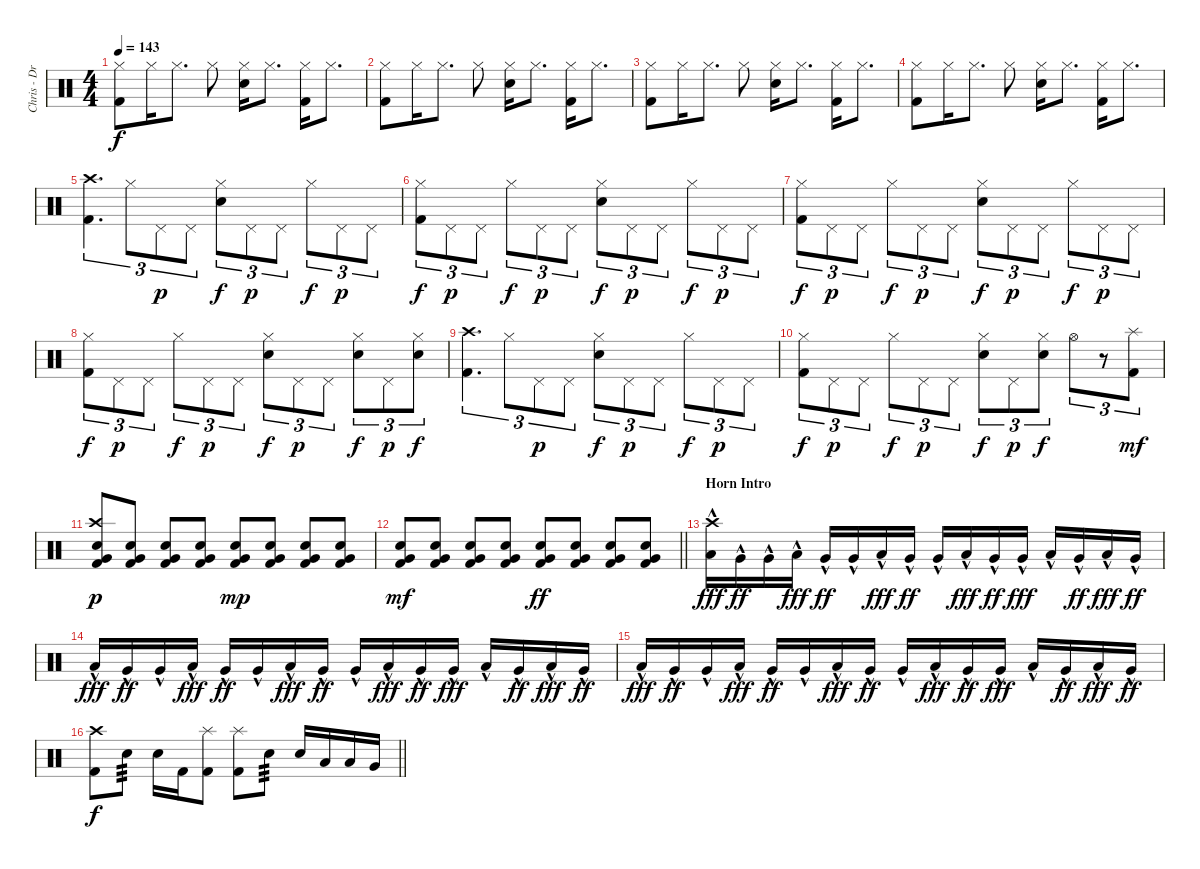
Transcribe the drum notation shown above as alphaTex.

\track ("Chris - Drums" "Chris - Dr") {instrument percussion}
\staff {score}
\articulation defaults
\ts (4 4)
\tempo 143
\clef neutral
\ks c
("Hi-Hat (closed)" "Kick (hit) 2").8{dy f} "Hi-Hat (closed)".16 "Hi-Hat (closed)".8{d} "Hi-Hat (closed)".8 ("Hi-Hat (closed)" "Electric Snare (hit)").16 "Hi-Hat (closed)".8{d} ("Hi-Hat (closed)" "Kick (hit) 2").16 "Hi-Hat (closed)".8{d} |
("Hi-Hat (closed)" "Kick (hit) 2").8 "Hi-Hat (closed)".16 "Hi-Hat (closed)".8{d} "Hi-Hat (closed)".8 ("Hi-Hat (closed)" "Electric Snare (hit)").16 "Hi-Hat (closed)".8{d} ("Hi-Hat (closed)" "Kick (hit) 2").16 "Hi-Hat (closed)".8{d} |
("Hi-Hat (closed)" "Kick (hit) 2").8 "Hi-Hat (closed)".16 "Hi-Hat (closed)".8{d} "Hi-Hat (closed)".8 ("Hi-Hat (closed)" "Electric Snare (hit)").16 "Hi-Hat (closed)".8{d} ("Hi-Hat (closed)" "Kick (hit) 2").16 "Hi-Hat (closed)".8{d} |
("Hi-Hat (closed)" "Kick (hit) 2").8 "Hi-Hat (closed)".16 "Hi-Hat (closed)".8{d} "Hi-Hat (closed)".8 ("Hi-Hat (closed)" "Electric Snare (hit)").16 "Hi-Hat (closed)".8{d} ("Hi-Hat (closed)" "Kick (hit) 2").16 "Hi-Hat (closed)".8{d} |
("Crash high (hit)" "Kick (hit) 2").4{d tu (3 2)} "Hi-Hat (closed)".8{tu (3 2)} "Pedal Hi-Hat (hit)".8{tu (3 2) dy p} "Pedal Hi-Hat (hit)".8{tu (3 2)} ("Hi-Hat (closed)" "Electric Snare (hit)").8{tu (3 2) dy f} "Pedal Hi-Hat (hit)".8{tu (3 2) dy p} "Pedal Hi-Hat (hit)".8{tu (3 2)} "Hi-Hat (closed)".8{tu (3 2) dy f} "Pedal Hi-Hat (hit)".8{tu (3 2) dy p} "Pedal Hi-Hat (hit)".8{tu (3 2)} |
("Hi-Hat (closed)" "Kick (hit) 2").8{tu (3 2) dy f} "Pedal Hi-Hat (hit)".8{tu (3 2) dy p} "Pedal Hi-Hat (hit)".8{tu (3 2)} "Hi-Hat (closed)".8{tu (3 2) dy f} "Pedal Hi-Hat (hit)".8{tu (3 2) dy p} "Pedal Hi-Hat (hit)".8{tu (3 2)} ("Hi-Hat (closed)" "Electric Snare (hit)").8{tu (3 2) dy f} "Pedal Hi-Hat (hit)".8{tu (3 2) dy p} "Pedal Hi-Hat (hit)".8{tu (3 2)} "Hi-Hat (closed)".8{tu (3 2) dy f} "Pedal Hi-Hat (hit)".8{tu (3 2) dy p} "Pedal Hi-Hat (hit)".8{tu (3 2)} |
("Hi-Hat (closed)" "Kick (hit) 2").8{tu (3 2) dy f} "Pedal Hi-Hat (hit)".8{tu (3 2) dy p} "Pedal Hi-Hat (hit)".8{tu (3 2)} "Hi-Hat (closed)".8{tu (3 2) dy f} "Pedal Hi-Hat (hit)".8{tu (3 2) dy p} "Pedal Hi-Hat (hit)".8{tu (3 2)} ("Hi-Hat (closed)" "Electric Snare (hit)").8{tu (3 2) dy f} "Pedal Hi-Hat (hit)".8{tu (3 2) dy p} "Pedal Hi-Hat (hit)".8{tu (3 2)} "Hi-Hat (closed)".8{tu (3 2) dy f} "Pedal Hi-Hat (hit)".8{tu (3 2) dy p} "Pedal Hi-Hat (hit)".8{tu (3 2)} |
("Hi-Hat (closed)" "Kick (hit) 2").8{tu (3 2) dy f} "Pedal Hi-Hat (hit)".8{tu (3 2) dy p} "Pedal Hi-Hat (hit)".8{tu (3 2)} "Hi-Hat (closed)".8{tu (3 2) dy f} "Pedal Hi-Hat (hit)".8{tu (3 2) dy p} "Pedal Hi-Hat (hit)".8{tu (3 2)} ("Hi-Hat (closed)" "Electric Snare (hit)").8{tu (3 2) dy f} "Pedal Hi-Hat (hit)".8{tu (3 2) dy p} "Pedal Hi-Hat (hit)".8{tu (3 2)} ("Hi-Hat (closed)" "Electric Snare (hit)").8{tu (3 2) dy f} "Pedal Hi-Hat (hit)".8{tu (3 2) dy p} ("Hi-Hat (closed)" "Electric Snare (hit)").8{tu (3 2) dy f} |
("Crash high (hit)" "Kick (hit) 2").4{d tu (3 2)} "Hi-Hat (closed)".8{tu (3 2)} "Pedal Hi-Hat (hit)".8{tu (3 2) dy p} "Pedal Hi-Hat (hit)".8{tu (3 2)} ("Hi-Hat (closed)" "Electric Snare (hit)").8{tu (3 2) dy f} "Pedal Hi-Hat (hit)".8{tu (3 2) dy p} "Pedal Hi-Hat (hit)".8{tu (3 2)} "Hi-Hat (closed)".8{tu (3 2) dy f} "Pedal Hi-Hat (hit)".8{tu (3 2) dy p} "Pedal Hi-Hat (hit)".8{tu (3 2)} |
("Hi-Hat (closed)" "Kick (hit) 2").8{tu (3 2) dy f} "Pedal Hi-Hat (hit)".8{tu (3 2) dy p} "Pedal Hi-Hat (hit)".8{tu (3 2)} "Hi-Hat (closed)".8{tu (3 2) dy f} "Pedal Hi-Hat (hit)".8{tu (3 2) dy p} "Pedal Hi-Hat (hit)".8{tu (3 2)} ("Hi-Hat (closed)" "Electric Snare (hit)").8{tu (3 2) dy f} "Pedal Hi-Hat (hit)".8{tu (3 2) dy p} ("Hi-Hat (closed)" "Electric Snare (hit)").8{tu (3 2) dy f} "Hi-Hat (open)".8{tu (3 2)} r.8{tu (3 2)} ("Splash (hit)" "Kick (hit) 2").8{tu (3 2) dy mf} |
("Crash high (hit)" "Very Low Tom (hit)" "Electric Snare (hit)" "Kick (hit) 2").8{dy p} ("Very Low Tom (hit)" "Electric Snare (hit)" "Kick (hit) 2").8 ("Very Low Tom (hit)" "Electric Snare (hit)" "Kick (hit) 2").8 ("Very Low Tom (hit)" "Electric Snare (hit)" "Kick (hit) 2").8 ("Very Low Tom (hit)" "Electric Snare (hit)" "Kick (hit) 2").8{dy mp} ("Very Low Tom (hit)" "Electric Snare (hit)" "Kick (hit) 2").8 ("Very Low Tom (hit)" "Electric Snare (hit)" "Kick (hit) 2").8 ("Very Low Tom (hit)" "Electric Snare (hit)" "Kick (hit) 2").8 |
\barLineRight lightlight
("Very Low Tom (hit)" "Electric Snare (hit)" "Kick (hit) 2").8{dy mf} ("Very Low Tom (hit)" "Electric Snare (hit)" "Kick (hit) 2").8 ("Very Low Tom (hit)" "Electric Snare (hit)" "Kick (hit) 2").8 ("Very Low Tom (hit)" "Electric Snare (hit)" "Kick (hit) 2").8 ("Very Low Tom (hit)" "Electric Snare (hit)" "Kick (hit) 2").8{dy ff} ("Very Low Tom (hit)" "Electric Snare (hit)" "Kick (hit) 2").8 ("Very Low Tom (hit)" "Electric Snare (hit)" "Kick (hit) 2").8 ("Very Low Tom (hit)" "Electric Snare (hit)" "Kick (hit) 2").8 |
\section ("" "Horn Intro")
("Crash high (hit)"{hac} "Low Tom (hit)"{hac}).16{dy fff} "Very Low Tom (hit)"{hac}.16{dy ff} "Very Low Tom (hit)"{hac}.16 "Low Tom (hit)"{hac}.16{dy fff} "Very Low Tom (hit)"{hac}.16{dy ff} "Very Low Tom (hit)"{hac}.16 "Low Tom (hit)"{hac}.16{dy fff} "Very Low Tom (hit)"{hac}.16{dy ff} "Very Low Tom (hit)"{hac}.16 "Low Tom (hit)"{hac}.16{dy fff} "Very Low Tom (hit)"{hac}.16{dy ff} "Very Low Tom (hit)"{hac}.16{dy fff} "Low Tom (hit)"{hac}.16 "Very Low Tom (hit)"{hac}.16{dy ff} "Low Tom (hit)"{hac}.16{dy fff} "Very Low Tom (hit)"{hac}.16{dy ff} |
"Low Tom (hit)"{hac}.16{dy fff} "Very Low Tom (hit)"{hac}.16{dy ff} "Very Low Tom (hit)"{hac}.16 "Low Tom (hit)"{hac}.16{dy fff} "Very Low Tom (hit)"{hac}.16{dy ff} "Very Low Tom (hit)"{hac}.16 "Low Tom (hit)"{hac}.16{dy fff} "Very Low Tom (hit)"{hac}.16{dy ff} "Very Low Tom (hit)"{hac}.16 "Low Tom (hit)"{hac}.16{dy fff} "Very Low Tom (hit)"{hac}.16{dy ff} "Very Low Tom (hit)"{hac}.16{dy fff} "Low Tom (hit)"{hac}.16 "Very Low Tom (hit)"{hac}.16{dy ff} "Low Tom (hit)"{hac}.16{dy fff} "Very Low Tom (hit)"{hac}.16{dy ff} |
"Low Tom (hit)"{hac}.16{dy fff} "Very Low Tom (hit)"{hac}.16{dy ff} "Very Low Tom (hit)"{hac}.16 "Low Tom (hit)"{hac}.16{dy fff} "Very Low Tom (hit)"{hac}.16{dy ff} "Very Low Tom (hit)"{hac}.16 "Low Tom (hit)"{hac}.16{dy fff} "Very Low Tom (hit)"{hac}.16{dy ff} "Very Low Tom (hit)"{hac}.16 "Low Tom (hit)"{hac}.16{dy fff} "Very Low Tom (hit)"{hac}.16{dy ff} "Very Low Tom (hit)"{hac}.16{dy fff} "Low Tom (hit)"{hac}.16 "Very Low Tom (hit)"{hac}.16{dy ff} "Low Tom (hit)"{hac}.16{dy fff} "Very Low Tom (hit)"{hac}.16{dy ff} |
\barLineRight lightlight
("Crash high (hit)" "Kick (hit) 2").8{dy f} "Electric Snare (hit)".8{tp 3} "Electric Snare (hit)".16 "Kick (hit) 2".16 ("Splash (hit)" "Kick (hit) 2").8 ("Splash (hit)" "Kick (hit) 2").8 "Electric Snare (hit)".8{tp 3} "Electric Snare (hit)".16 "Low Tom (hit)".16 "Low Tom (hit)".16 "Very Low Tom (hit)".16
